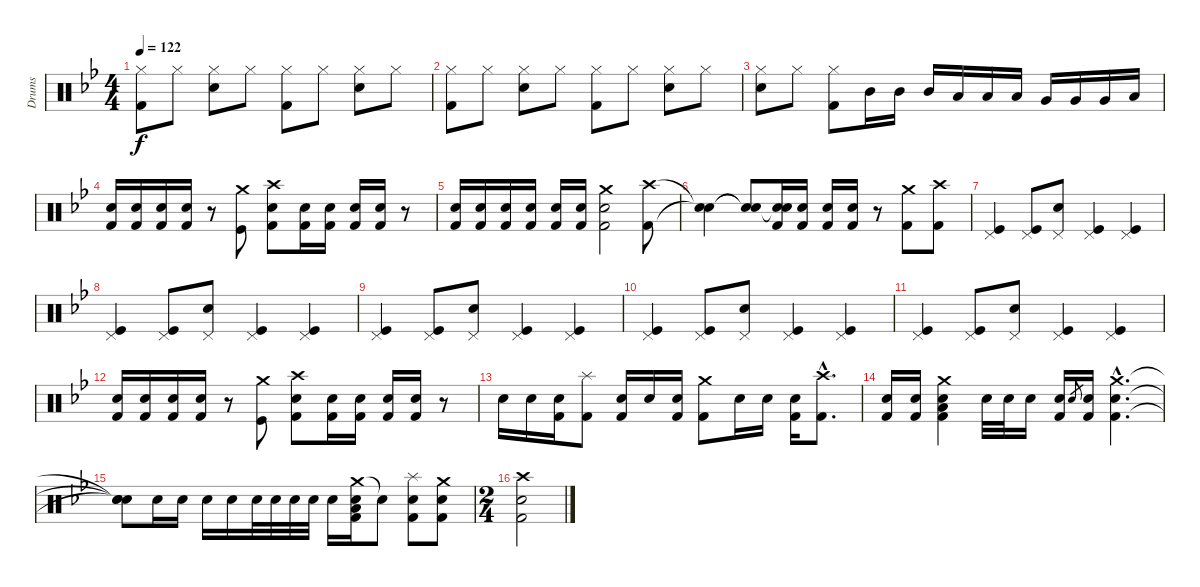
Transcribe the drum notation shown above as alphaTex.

\track ("Drums" "Drums") {instrument percussion}
\staff {score}
\articulation defaults
\ts (4 4)
\tempo 122
\clef neutral
\ks bb
("Hi-Hat (closed)" "Kick (hit) 2").8{dy f} "Hi-Hat (closed)".8 ("Hi-Hat (closed)" "Electric Snare (hit)").8 "Hi-Hat (closed)".8 ("Hi-Hat (closed)" "Kick (hit) 2").8 "Hi-Hat (closed)".8 ("Hi-Hat (closed)" "Electric Snare (hit)").8 "Hi-Hat (closed)".8 |
("Hi-Hat (closed)" "Kick (hit) 2").8 "Hi-Hat (closed)".8 ("Hi-Hat (closed)" "Electric Snare (hit)").8 "Hi-Hat (closed)".8 ("Hi-Hat (closed)" "Kick (hit) 2").8 "Hi-Hat (closed)".8 ("Hi-Hat (closed)" "Electric Snare (hit)").8 "Hi-Hat (closed)".8 |
("Hi-Hat (closed)" "Electric Snare (hit)").8 "Hi-Hat (closed)".8 ("Hi-Hat (closed)" "Kick (hit) 2").8 "Mid Tom (hit)".16 "Mid Tom (hit)".16 "Mid Tom (hit)".16 "Low Tom (hit)".16 "Low Tom (hit)".16 "Low Tom (hit)".16 "Very Low Tom (hit)".16 "Very Low Tom (hit)".16 "Very Low Tom (hit)".16 "Low Floor Tom (hit)".16 |
("Electric Snare (hit)" "Kick (hit) 2").16 ("Electric Snare (hit)" "Kick (hit) 2").16 ("Electric Snare (hit)" "Kick (hit) 2").16 ("Electric Snare (hit)" "Kick (hit) 2").16 r.8 ("Crash medium (hit)" "Kick (hit)").8 ("Crash high (hit)" "Electric Snare (hit)" "Kick (hit) 2").8 ("Electric Snare (hit)" "Kick (hit) 2").16 ("Electric Snare (hit)" "Kick (hit) 2").16 ("Electric Snare (hit)" "Kick (hit) 2").16 ("Electric Snare (hit)" "Kick (hit) 2").16 r.8 |
("Electric Snare (hit)" "Kick (hit) 2").16 ("Electric Snare (hit)" "Kick (hit) 2").16 ("Electric Snare (hit)" "Kick (hit) 2").16 ("Electric Snare (hit)" "Kick (hit) 2").16 ("Electric Snare (hit)" "Kick (hit) 2").16 ("Electric Snare (hit)" "Kick (hit) 2").16 ("Crash medium (hit)" "Electric Snare (hit)" "Kick (hit) 2").2 ("Crash high (hit)" "Kick (hit) 2").8 |
("Snare (hit)"{t} "Snare (hit)"{t}).4 ("Snare (hit)"{t} "Snare (hit)"{t}).8 ("Snare (hit)"{t} "Electric Snare (hit)" "Kick (hit) 2").16 ("Electric Snare (hit)" "Kick (hit) 2").16 ("Electric Snare (hit)" "Kick (hit) 2").16 ("Electric Snare (hit)" "Kick (hit) 2").16 r.8 ("Crash medium (hit)" "Kick (hit) 2").8 ("Crash high (hit)" "Kick (hit) 2").8 |
("Pedal Hi-Hat (hit)" "Kick (hit)").4 ("Pedal Hi-Hat (hit)" "Kick (hit)").8 ("Pedal Hi-Hat (hit)" "Electric Snare (hit)").8 ("Pedal Hi-Hat (hit)" "Kick (hit)").4 ("Pedal Hi-Hat (hit)" "Kick (hit)").4 |
("Pedal Hi-Hat (hit)" "Kick (hit)").4 ("Pedal Hi-Hat (hit)" "Kick (hit)").8 ("Pedal Hi-Hat (hit)" "Electric Snare (hit)").8 ("Pedal Hi-Hat (hit)" "Kick (hit)").4 ("Pedal Hi-Hat (hit)" "Kick (hit)").4 |
("Pedal Hi-Hat (hit)" "Kick (hit)").4 ("Pedal Hi-Hat (hit)" "Kick (hit)").8 ("Pedal Hi-Hat (hit)" "Electric Snare (hit)").8 ("Pedal Hi-Hat (hit)" "Kick (hit)").4 ("Pedal Hi-Hat (hit)" "Kick (hit)").4 |
("Pedal Hi-Hat (hit)" "Kick (hit)").4 ("Pedal Hi-Hat (hit)" "Kick (hit)").8 ("Pedal Hi-Hat (hit)" "Electric Snare (hit)").8 ("Pedal Hi-Hat (hit)" "Kick (hit)").4 ("Pedal Hi-Hat (hit)" "Kick (hit)").4 |
("Pedal Hi-Hat (hit)" "Kick (hit)").4 ("Pedal Hi-Hat (hit)" "Kick (hit)").8 ("Pedal Hi-Hat (hit)" "Electric Snare (hit)").8 ("Pedal Hi-Hat (hit)" "Kick (hit)").4 ("Pedal Hi-Hat (hit)" "Kick (hit)").4 |
("Electric Snare (hit)" "Kick (hit) 2").16 ("Electric Snare (hit)" "Kick (hit) 2").16 ("Electric Snare (hit)" "Kick (hit) 2").16 ("Electric Snare (hit)" "Kick (hit) 2").16 r.8 ("Crash medium (hit)" "Kick (hit)").8 ("Crash high (hit)" "Electric Snare (hit)" "Kick (hit) 2").8 ("Electric Snare (hit)" "Kick (hit) 2").16 ("Electric Snare (hit)" "Kick (hit) 2").16 ("Electric Snare (hit)" "Kick (hit) 2").16 ("Electric Snare (hit)" "Kick (hit) 2").16 r.8 |
"Electric Snare (hit)".16 "Electric Snare (hit)".16 ("Electric Snare (hit)" "Kick (hit) 2").16 ("Splash (hit)" "Kick (hit) 2").8 ("Electric Snare (hit)" "Kick (hit) 2").16 "Electric Snare (hit)".16 ("Electric Snare (hit)" "Kick (hit) 2").16 ("Crash medium (hit)" "Kick (hit) 2").8 "Electric Snare (hit)".16 "Electric Snare (hit)".16 ("Electric Snare (hit)" "Kick (hit) 2").16 ("Crash high (hit)"{hac} "Kick (hit) 2"{hac}).8{d} |
("Electric Snare (hit)" "Kick (hit) 2").16 ("Electric Snare (hit)" "Kick (hit) 2").16 ("Crash medium (hit)" "Electric Snare (hit)" "Low Tom (hit)" "Kick (hit) 2").4 "Electric Snare (hit)".32 "Electric Snare (hit)".32 "Electric Snare (hit)".16 ("Electric Snare (hit)" "Kick (hit) 2").16 "Electric Snare (hit)".8{gr} ("Electric Snare (hit)" "Kick (hit) 2").16 ("Crash medium (hit)"{hac} "Electric Snare (hit)"{hac} "Kick (hit) 2"{hac}).4{d} |
("Snare (hit)"{t} "Snare (hit)"{t} "Snare (hit)"{t}).8 "Electric Snare (hit)".16 "Electric Snare (hit)".16 "Electric Snare (hit)".16 "Electric Snare (hit)".16 "Electric Snare (hit)".32 "Electric Snare (hit)".32 "Electric Snare (hit)".32 "Electric Snare (hit)".32 "Electric Snare (hit)".16 ("Crash medium (hit)" "Electric Snare (hit)" "Low Tom (hit)" "Kick (hit) 2").16 "Snare (hit)"{t}.8 ("Splash (hit)" "Electric Snare (hit)" "Kick (hit) 2").8 ("Crash medium (hit)" "Electric Snare (hit)" "Kick (hit) 2").8 |
\ts (2 4)
("Crash high (hit)" "Electric Snare (hit)" "Kick (hit) 2").2
